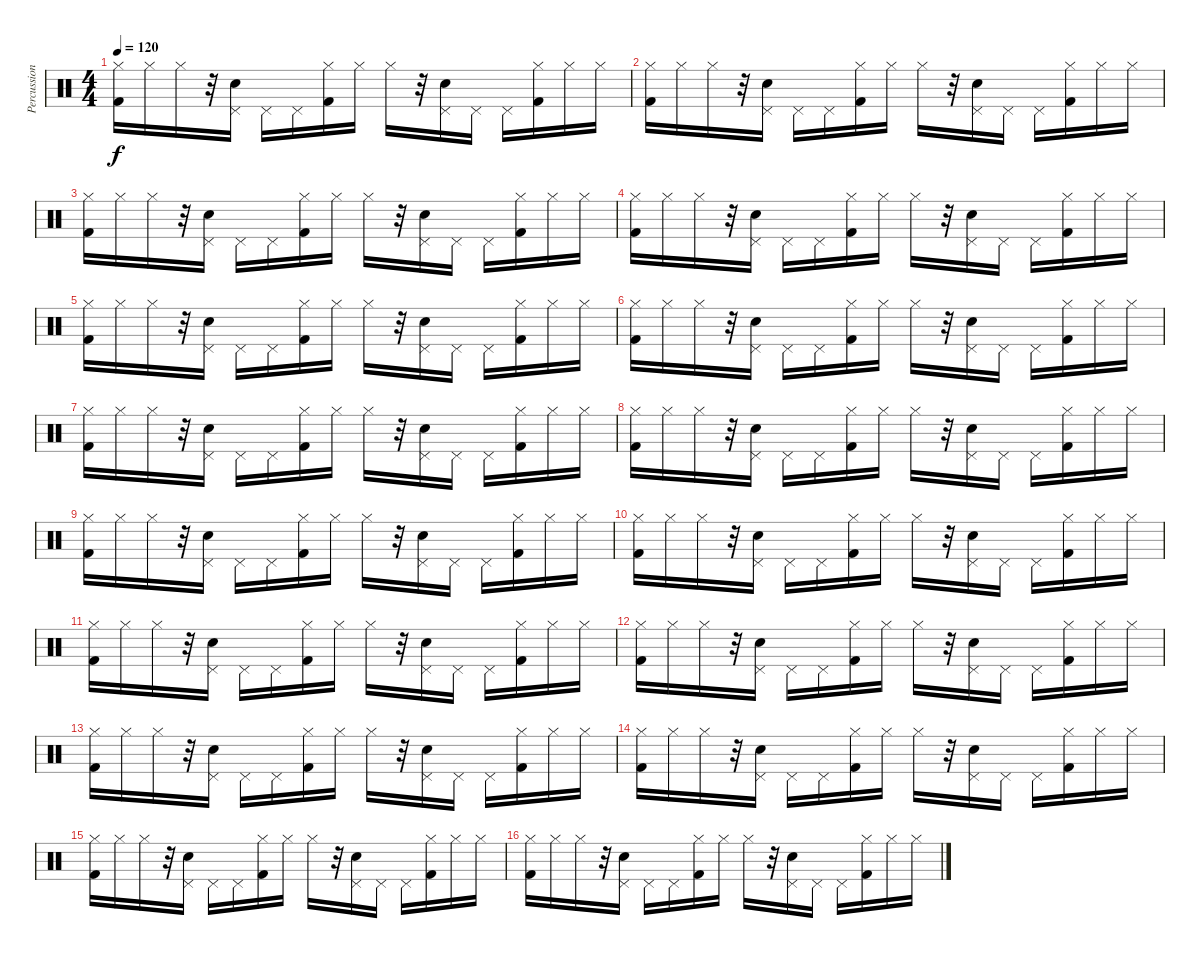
\track ("Percussioni" "Percussion") {instrument percussion}
\staff {score}
\articulation defaults
\ts (4 4)
\tempo 120
\clef neutral
\ks c
("Hi-Hat (closed)" "Kick (hit) 2").16{dy f} "Hi-Hat (closed)".16 "Hi-Hat (closed)".16 r.32 ("Pedal Hi-Hat (hit)" "Electric Snare (hit)").16 "Pedal Hi-Hat (hit)".16 "Pedal Hi-Hat (hit)".16 ("Hi-Hat (closed)" "Kick (hit) 2").16 "Hi-Hat (closed)".16 "Hi-Hat (closed)".16 r.32 ("Pedal Hi-Hat (hit)" "Electric Snare (hit)").16 "Pedal Hi-Hat (hit)".16 "Pedal Hi-Hat (hit)".16 ("Hi-Hat (closed)" "Kick (hit) 2").16 "Hi-Hat (closed)".16 "Hi-Hat (closed)".16 |
("Hi-Hat (closed)" "Kick (hit) 2").16 "Hi-Hat (closed)".16 "Hi-Hat (closed)".16 r.32 ("Pedal Hi-Hat (hit)" "Electric Snare (hit)").16 "Pedal Hi-Hat (hit)".16 "Pedal Hi-Hat (hit)".16 ("Hi-Hat (closed)" "Kick (hit) 2").16 "Hi-Hat (closed)".16 "Hi-Hat (closed)".16 r.32 ("Pedal Hi-Hat (hit)" "Electric Snare (hit)").16 "Pedal Hi-Hat (hit)".16 "Pedal Hi-Hat (hit)".16 ("Hi-Hat (closed)" "Kick (hit) 2").16 "Hi-Hat (closed)".16 "Hi-Hat (closed)".16 |
("Hi-Hat (closed)" "Kick (hit) 2").16 "Hi-Hat (closed)".16 "Hi-Hat (closed)".16 r.32 ("Pedal Hi-Hat (hit)" "Electric Snare (hit)").16 "Pedal Hi-Hat (hit)".16 "Pedal Hi-Hat (hit)".16 ("Hi-Hat (closed)" "Kick (hit) 2").16 "Hi-Hat (closed)".16 "Hi-Hat (closed)".16 r.32 ("Pedal Hi-Hat (hit)" "Electric Snare (hit)").16 "Pedal Hi-Hat (hit)".16 "Pedal Hi-Hat (hit)".16 ("Hi-Hat (closed)" "Kick (hit) 2").16 "Hi-Hat (closed)".16 "Hi-Hat (closed)".16 |
("Hi-Hat (closed)" "Kick (hit) 2").16 "Hi-Hat (closed)".16 "Hi-Hat (closed)".16 r.32 ("Pedal Hi-Hat (hit)" "Electric Snare (hit)").16 "Pedal Hi-Hat (hit)".16 "Pedal Hi-Hat (hit)".16 ("Hi-Hat (closed)" "Kick (hit) 2").16 "Hi-Hat (closed)".16 "Hi-Hat (closed)".16 r.32 ("Pedal Hi-Hat (hit)" "Electric Snare (hit)").16 "Pedal Hi-Hat (hit)".16 "Pedal Hi-Hat (hit)".16 ("Hi-Hat (closed)" "Kick (hit) 2").16 "Hi-Hat (closed)".16 "Hi-Hat (closed)".16 |
("Hi-Hat (closed)" "Kick (hit) 2").16 "Hi-Hat (closed)".16 "Hi-Hat (closed)".16 r.32 ("Pedal Hi-Hat (hit)" "Electric Snare (hit)").16 "Pedal Hi-Hat (hit)".16 "Pedal Hi-Hat (hit)".16 ("Hi-Hat (closed)" "Kick (hit) 2").16 "Hi-Hat (closed)".16 "Hi-Hat (closed)".16 r.32 ("Pedal Hi-Hat (hit)" "Electric Snare (hit)").16 "Pedal Hi-Hat (hit)".16 "Pedal Hi-Hat (hit)".16 ("Hi-Hat (closed)" "Kick (hit) 2").16 "Hi-Hat (closed)".16 "Hi-Hat (closed)".16 |
("Hi-Hat (closed)" "Kick (hit) 2").16 "Hi-Hat (closed)".16 "Hi-Hat (closed)".16 r.32 ("Pedal Hi-Hat (hit)" "Electric Snare (hit)").16 "Pedal Hi-Hat (hit)".16 "Pedal Hi-Hat (hit)".16 ("Hi-Hat (closed)" "Kick (hit) 2").16 "Hi-Hat (closed)".16 "Hi-Hat (closed)".16 r.32 ("Pedal Hi-Hat (hit)" "Electric Snare (hit)").16 "Pedal Hi-Hat (hit)".16 "Pedal Hi-Hat (hit)".16 ("Hi-Hat (closed)" "Kick (hit) 2").16 "Hi-Hat (closed)".16 "Hi-Hat (closed)".16 |
("Hi-Hat (closed)" "Kick (hit) 2").16 "Hi-Hat (closed)".16 "Hi-Hat (closed)".16 r.32 ("Pedal Hi-Hat (hit)" "Electric Snare (hit)").16 "Pedal Hi-Hat (hit)".16 "Pedal Hi-Hat (hit)".16 ("Hi-Hat (closed)" "Kick (hit) 2").16 "Hi-Hat (closed)".16 "Hi-Hat (closed)".16 r.32 ("Pedal Hi-Hat (hit)" "Electric Snare (hit)").16 "Pedal Hi-Hat (hit)".16 "Pedal Hi-Hat (hit)".16 ("Hi-Hat (closed)" "Kick (hit) 2").16 "Hi-Hat (closed)".16 "Hi-Hat (closed)".16 |
("Hi-Hat (closed)" "Kick (hit) 2").16 "Hi-Hat (closed)".16 "Hi-Hat (closed)".16 r.32 ("Pedal Hi-Hat (hit)" "Electric Snare (hit)").16 "Pedal Hi-Hat (hit)".16 "Pedal Hi-Hat (hit)".16 ("Hi-Hat (closed)" "Kick (hit) 2").16 "Hi-Hat (closed)".16 "Hi-Hat (closed)".16 r.32 ("Pedal Hi-Hat (hit)" "Electric Snare (hit)").16 "Pedal Hi-Hat (hit)".16 "Pedal Hi-Hat (hit)".16 ("Hi-Hat (closed)" "Kick (hit) 2").16 "Hi-Hat (closed)".16 "Hi-Hat (closed)".16 |
("Hi-Hat (closed)" "Kick (hit) 2").16 "Hi-Hat (closed)".16 "Hi-Hat (closed)".16 r.32 ("Pedal Hi-Hat (hit)" "Electric Snare (hit)").16 "Pedal Hi-Hat (hit)".16 "Pedal Hi-Hat (hit)".16 ("Hi-Hat (closed)" "Kick (hit) 2").16 "Hi-Hat (closed)".16 "Hi-Hat (closed)".16 r.32 ("Pedal Hi-Hat (hit)" "Electric Snare (hit)").16 "Pedal Hi-Hat (hit)".16 "Pedal Hi-Hat (hit)".16 ("Hi-Hat (closed)" "Kick (hit) 2").16 "Hi-Hat (closed)".16 "Hi-Hat (closed)".16 |
("Hi-Hat (closed)" "Kick (hit) 2").16 "Hi-Hat (closed)".16 "Hi-Hat (closed)".16 r.32 ("Pedal Hi-Hat (hit)" "Electric Snare (hit)").16 "Pedal Hi-Hat (hit)".16 "Pedal Hi-Hat (hit)".16 ("Hi-Hat (closed)" "Kick (hit) 2").16 "Hi-Hat (closed)".16 "Hi-Hat (closed)".16 r.32 ("Pedal Hi-Hat (hit)" "Electric Snare (hit)").16 "Pedal Hi-Hat (hit)".16 "Pedal Hi-Hat (hit)".16 ("Hi-Hat (closed)" "Kick (hit) 2").16 "Hi-Hat (closed)".16 "Hi-Hat (closed)".16 |
("Hi-Hat (closed)" "Kick (hit) 2").16 "Hi-Hat (closed)".16 "Hi-Hat (closed)".16 r.32 ("Pedal Hi-Hat (hit)" "Electric Snare (hit)").16 "Pedal Hi-Hat (hit)".16 "Pedal Hi-Hat (hit)".16 ("Hi-Hat (closed)" "Kick (hit) 2").16 "Hi-Hat (closed)".16 "Hi-Hat (closed)".16 r.32 ("Pedal Hi-Hat (hit)" "Electric Snare (hit)").16 "Pedal Hi-Hat (hit)".16 "Pedal Hi-Hat (hit)".16 ("Hi-Hat (closed)" "Kick (hit) 2").16 "Hi-Hat (closed)".16 "Hi-Hat (closed)".16 |
("Hi-Hat (closed)" "Kick (hit) 2").16 "Hi-Hat (closed)".16 "Hi-Hat (closed)".16 r.32 ("Pedal Hi-Hat (hit)" "Electric Snare (hit)").16 "Pedal Hi-Hat (hit)".16 "Pedal Hi-Hat (hit)".16 ("Hi-Hat (closed)" "Kick (hit) 2").16 "Hi-Hat (closed)".16 "Hi-Hat (closed)".16 r.32 ("Pedal Hi-Hat (hit)" "Electric Snare (hit)").16 "Pedal Hi-Hat (hit)".16 "Pedal Hi-Hat (hit)".16 ("Hi-Hat (closed)" "Kick (hit) 2").16 "Hi-Hat (closed)".16 "Hi-Hat (closed)".16 |
("Hi-Hat (closed)" "Kick (hit) 2").16 "Hi-Hat (closed)".16 "Hi-Hat (closed)".16 r.32 ("Pedal Hi-Hat (hit)" "Electric Snare (hit)").16 "Pedal Hi-Hat (hit)".16 "Pedal Hi-Hat (hit)".16 ("Hi-Hat (closed)" "Kick (hit) 2").16 "Hi-Hat (closed)".16 "Hi-Hat (closed)".16 r.32 ("Pedal Hi-Hat (hit)" "Electric Snare (hit)").16 "Pedal Hi-Hat (hit)".16 "Pedal Hi-Hat (hit)".16 ("Hi-Hat (closed)" "Kick (hit) 2").16 "Hi-Hat (closed)".16 "Hi-Hat (closed)".16 |
("Hi-Hat (closed)" "Kick (hit) 2").16 "Hi-Hat (closed)".16 "Hi-Hat (closed)".16 r.32 ("Pedal Hi-Hat (hit)" "Electric Snare (hit)").16 "Pedal Hi-Hat (hit)".16 "Pedal Hi-Hat (hit)".16 ("Hi-Hat (closed)" "Kick (hit) 2").16 "Hi-Hat (closed)".16 "Hi-Hat (closed)".16 r.32 ("Pedal Hi-Hat (hit)" "Electric Snare (hit)").16 "Pedal Hi-Hat (hit)".16 "Pedal Hi-Hat (hit)".16 ("Hi-Hat (closed)" "Kick (hit) 2").16 "Hi-Hat (closed)".16 "Hi-Hat (closed)".16 |
("Hi-Hat (closed)" "Kick (hit) 2").16 "Hi-Hat (closed)".16 "Hi-Hat (closed)".16 r.32 ("Pedal Hi-Hat (hit)" "Electric Snare (hit)").16 "Pedal Hi-Hat (hit)".16 "Pedal Hi-Hat (hit)".16 ("Hi-Hat (closed)" "Kick (hit) 2").16 "Hi-Hat (closed)".16 "Hi-Hat (closed)".16 r.32 ("Pedal Hi-Hat (hit)" "Electric Snare (hit)").16 "Pedal Hi-Hat (hit)".16 "Pedal Hi-Hat (hit)".16 ("Hi-Hat (closed)" "Kick (hit) 2").16 "Hi-Hat (closed)".16 "Hi-Hat (closed)".16 |
("Hi-Hat (closed)" "Kick (hit) 2").16 "Hi-Hat (closed)".16 "Hi-Hat (closed)".16 r.32 ("Pedal Hi-Hat (hit)" "Electric Snare (hit)").16 "Pedal Hi-Hat (hit)".16 "Pedal Hi-Hat (hit)".16 ("Hi-Hat (closed)" "Kick (hit) 2").16 "Hi-Hat (closed)".16 "Hi-Hat (closed)".16 r.32 ("Pedal Hi-Hat (hit)" "Electric Snare (hit)").16 "Pedal Hi-Hat (hit)".16 "Pedal Hi-Hat (hit)".16 ("Hi-Hat (closed)" "Kick (hit) 2").16 "Hi-Hat (closed)".16 "Hi-Hat (closed)".16
